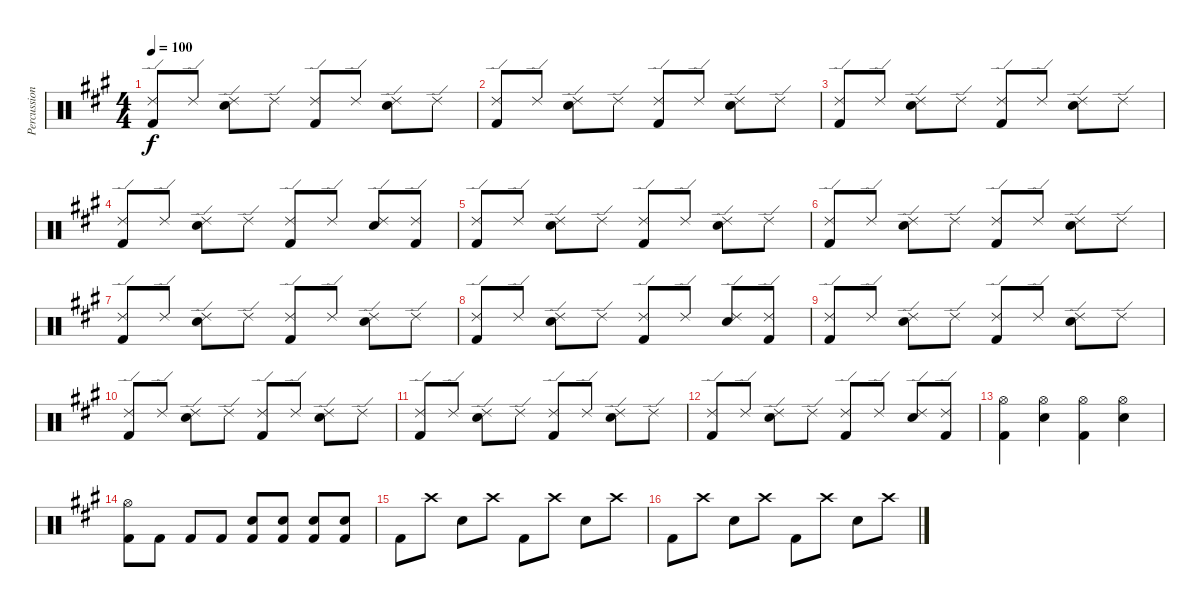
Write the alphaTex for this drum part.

\track ("Percussion" "Percussion") {instrument percussion}
\staff {score}
\articulation defaults
\ts (4 4)
\tempo 100
\clef neutral
\ks a
("Ride (edge) 2" "Kick (hit) 2").8{dy f} "Ride (edge) 2".8 ("Ride (edge) 2" "Snare (hit) 2").8 "Ride (edge) 2".8 ("Ride (edge) 2" "Kick (hit) 2").8 "Ride (edge) 2".8 ("Ride (edge) 2" "Snare (hit) 2").8 "Ride (edge) 2".8 |
("Ride (edge) 2" "Kick (hit) 2").8 "Ride (edge) 2".8 ("Ride (edge) 2" "Snare (hit) 2").8 "Ride (edge) 2".8 ("Ride (edge) 2" "Kick (hit) 2").8 "Ride (edge) 2".8 ("Ride (edge) 2" "Snare (hit) 2").8 "Ride (edge) 2".8 |
("Ride (edge) 2" "Kick (hit) 2").8 "Ride (edge) 2".8 ("Ride (edge) 2" "Snare (hit) 2").8 "Ride (edge) 2".8 ("Ride (edge) 2" "Kick (hit) 2").8 "Ride (edge) 2".8 ("Ride (edge) 2" "Snare (hit) 2").8 "Ride (edge) 2".8 |
("Ride (edge) 2" "Kick (hit) 2").8 "Ride (edge) 2".8 ("Ride (edge) 2" "Snare (hit) 2").8 "Ride (edge) 2".8 ("Ride (edge) 2" "Kick (hit) 2").8 "Ride (edge) 2".8 ("Ride (edge) 2" "Snare (hit) 2").8 ("Ride (edge) 2" "Kick (hit) 2").8 |
("Ride (edge) 2" "Kick (hit) 2").8 "Ride (edge) 2".8 ("Ride (edge) 2" "Snare (hit) 2").8 "Ride (edge) 2".8 ("Ride (edge) 2" "Kick (hit) 2").8 "Ride (edge) 2".8 ("Ride (edge) 2" "Snare (hit) 2").8 "Ride (edge) 2".8 |
("Ride (edge) 2" "Kick (hit) 2").8 "Ride (edge) 2".8 ("Ride (edge) 2" "Snare (hit) 2").8 "Ride (edge) 2".8 ("Ride (edge) 2" "Kick (hit) 2").8 "Ride (edge) 2".8 ("Ride (edge) 2" "Snare (hit) 2").8 "Ride (edge) 2".8 |
("Ride (edge) 2" "Kick (hit) 2").8 "Ride (edge) 2".8 ("Ride (edge) 2" "Snare (hit) 2").8 "Ride (edge) 2".8 ("Ride (edge) 2" "Kick (hit) 2").8 "Ride (edge) 2".8 ("Ride (edge) 2" "Snare (hit) 2").8 "Ride (edge) 2".8 |
("Ride (edge) 2" "Kick (hit) 2").8 "Ride (edge) 2".8 ("Ride (edge) 2" "Snare (hit) 2").8 "Ride (edge) 2".8 ("Ride (edge) 2" "Kick (hit) 2").8 "Ride (edge) 2".8 ("Ride (edge) 2" "Snare (hit) 2").8 ("Ride (edge) 2" "Kick (hit) 2").8 |
("Ride (edge) 2" "Kick (hit) 2").8 "Ride (edge) 2".8 ("Ride (edge) 2" "Snare (hit) 2").8 "Ride (edge) 2".8 ("Ride (edge) 2" "Kick (hit) 2").8 "Ride (edge) 2".8 ("Ride (edge) 2" "Snare (hit) 2").8 "Ride (edge) 2".8 |
("Ride (edge) 2" "Kick (hit) 2").8 "Ride (edge) 2".8 ("Ride (edge) 2" "Snare (hit) 2").8 "Ride (edge) 2".8 ("Ride (edge) 2" "Kick (hit) 2").8 "Ride (edge) 2".8 ("Ride (edge) 2" "Snare (hit) 2").8 "Ride (edge) 2".8 |
("Ride (edge) 2" "Kick (hit) 2").8 "Ride (edge) 2".8 ("Ride (edge) 2" "Snare (hit) 2").8 "Ride (edge) 2".8 ("Ride (edge) 2" "Kick (hit) 2").8 "Ride (edge) 2".8 ("Ride (edge) 2" "Snare (hit) 2").8 "Ride (edge) 2".8 |
("Ride (edge) 2" "Kick (hit) 2").8 "Ride (edge) 2".8 ("Ride (edge) 2" "Snare (hit) 2").8 "Ride (edge) 2".8 ("Ride (edge) 2" "Kick (hit) 2").8 "Ride (edge) 2".8 ("Ride (edge) 2" "Snare (hit) 2").8 ("Ride (edge) 2" "Kick (hit) 2").8 |
("Hi-Hat (open)" "Kick (hit) 2").4 ("Hi-Hat (open)" "Snare (hit) 2").4 ("Hi-Hat (open)" "Kick (hit) 2").4 ("Hi-Hat (open)" "Snare (hit) 2").4 |
("Hi-Hat (open)" "Kick (hit) 2").8 "Kick (hit) 2".8 "Kick (hit) 2".8 "Kick (hit) 2".8 ("Snare (hit) 2" "Kick (hit) 2").8 ("Snare (hit) 2" "Kick (hit) 2").8 ("Snare (hit) 2" "Kick (hit) 2").8 ("Snare (hit) 2" "Kick (hit) 2").8 |
"Kick (hit) 2".8 "Crash high (hit)".8 "Snare (hit) 2".8 "Crash high (hit)".8 "Kick (hit) 2".8 "Crash high (hit)".8 "Snare (hit) 2".8 "Crash high (hit)".8 |
"Kick (hit) 2".8 "Crash high (hit)".8 "Snare (hit) 2".8 "Crash high (hit)".8 "Kick (hit) 2".8 "Crash high (hit)".8 "Snare (hit) 2".8 "Crash high (hit)".8
